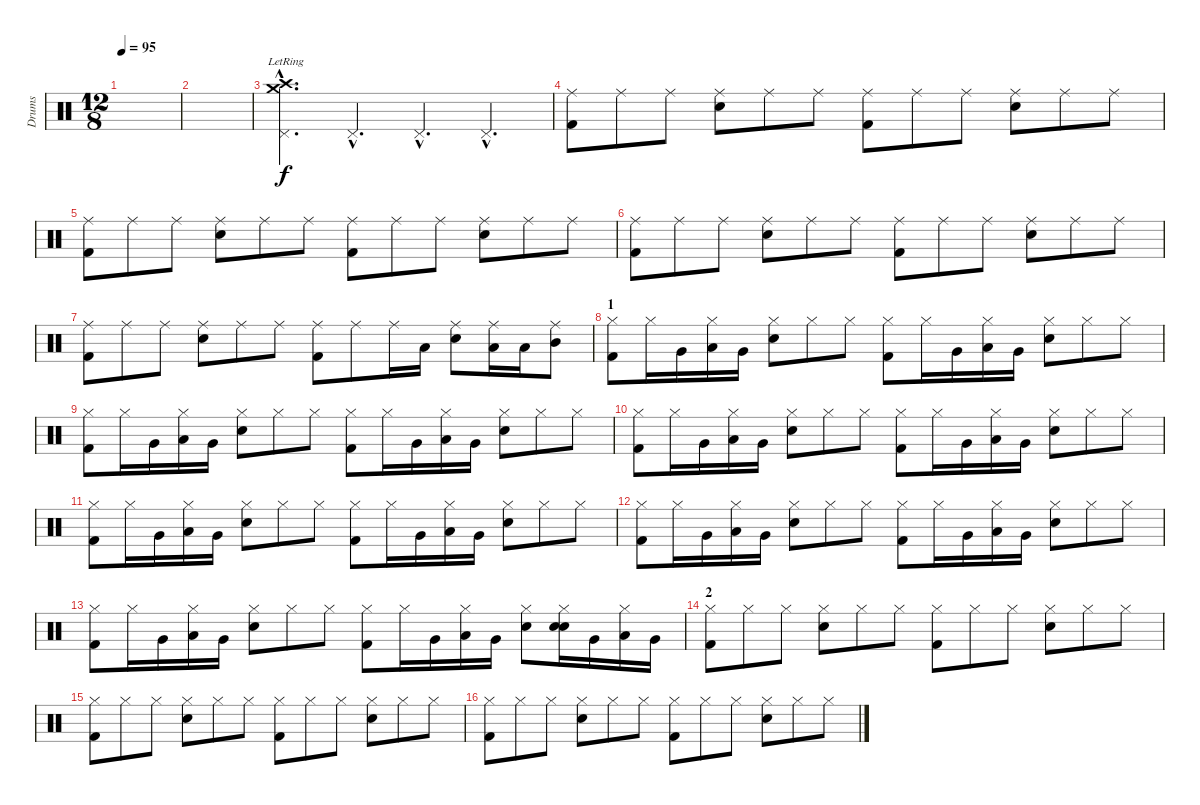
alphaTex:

\track ("Drums" "Drums") {instrument percussion}
\staff {score}
\articulation defaults
\ts (12 8)
\tempo 95
\clef neutral
\ks c
|
|
("Pedal Hi-Hat (hit)"{hac} "Crash medium (hit)"{hac lr} "Crash high (hit)"{hac lr}).4{d} "Pedal Hi-Hat (hit)"{hac}.4{d} "Pedal Hi-Hat (hit)"{hac}.4{d} "Pedal Hi-Hat (hit)"{hac}.4{d} |
("Kick (hit) 2" "Ride (middle)").8 "Ride (middle)".8 "Ride (middle)".8 ("Snare (hit) 2" "Ride (middle)").8 "Ride (middle)".8 "Ride (middle)".8 ("Kick (hit) 2" "Ride (middle)").8 "Ride (middle)".8 "Ride (middle)".8 ("Snare (hit) 2" "Ride (middle)").8 "Ride (middle)".8 "Ride (middle)".8 |
("Kick (hit) 2" "Ride (middle)").8 "Ride (middle)".8 "Ride (middle)".8 ("Snare (hit) 2" "Ride (middle)").8 "Ride (middle)".8 "Ride (middle)".8 ("Kick (hit) 2" "Ride (middle)").8 "Ride (middle)".8 "Ride (middle)".8 ("Snare (hit) 2" "Ride (middle)").8 "Ride (middle)".8 "Ride (middle)".8 |
("Kick (hit) 2" "Ride (middle)").8 "Ride (middle)".8 "Ride (middle)".8 ("Snare (hit) 2" "Ride (middle)").8 "Ride (middle)".8 "Ride (middle)".8 ("Kick (hit) 2" "Ride (middle)").8 "Ride (middle)".8 "Ride (middle)".8 ("Snare (hit) 2" "Ride (middle)").8 "Ride (middle)".8 "Ride (middle)".8 |
("Kick (hit) 2" "Ride (middle)").8 "Ride (middle)".8 "Ride (middle)".8 ("Snare (hit) 2" "Ride (middle)").8 "Ride (middle)".8 "Ride (middle)".8 ("Kick (hit) 2" "Ride (middle)").8 "Ride (middle)".8 "Ride (middle)".16 "Low Tom (hit)".16 ("Snare (hit) 2" "Ride (middle)").8 ("Ride (middle)" "Low Tom (hit)").16 "Low Tom (hit)".16 ("Ride (middle)" "Mid Tom (hit)").8 |
\section ("" "1")
("Kick (hit) 2" "Hi-Hat (closed)").8 "Hi-Hat (closed)".16 "Very Low Tom (hit)".16 ("Hi-Hat (closed)" "Low Tom (hit)").16 "Very Low Tom (hit)".16 ("Snare (hit) 2" "Hi-Hat (closed)").8 "Hi-Hat (closed)".8 "Hi-Hat (closed)".8 ("Kick (hit) 2" "Hi-Hat (closed)").8 "Hi-Hat (closed)".16 "Very Low Tom (hit)".16 ("Hi-Hat (closed)" "Low Tom (hit)").16 "Very Low Tom (hit)".16 ("Snare (hit) 2" "Hi-Hat (closed)").8 "Hi-Hat (closed)".8 "Hi-Hat (closed)".8 |
("Kick (hit) 2" "Hi-Hat (closed)").8 "Hi-Hat (closed)".16 "Very Low Tom (hit)".16 ("Hi-Hat (closed)" "Low Tom (hit)").16 "Very Low Tom (hit)".16 ("Snare (hit) 2" "Hi-Hat (closed)").8 "Hi-Hat (closed)".8 "Hi-Hat (closed)".8 ("Kick (hit) 2" "Hi-Hat (closed)").8 "Hi-Hat (closed)".16 "Very Low Tom (hit)".16 ("Hi-Hat (closed)" "Low Tom (hit)").16 "Very Low Tom (hit)".16 ("Snare (hit) 2" "Hi-Hat (closed)").8 "Hi-Hat (closed)".8 "Hi-Hat (closed)".8 |
("Kick (hit) 2" "Hi-Hat (closed)").8 "Hi-Hat (closed)".16 "Very Low Tom (hit)".16 ("Hi-Hat (closed)" "Low Tom (hit)").16 "Very Low Tom (hit)".16 ("Snare (hit) 2" "Hi-Hat (closed)").8 "Hi-Hat (closed)".8 "Hi-Hat (closed)".8 ("Kick (hit) 2" "Hi-Hat (closed)").8 "Hi-Hat (closed)".16 "Very Low Tom (hit)".16 ("Hi-Hat (closed)" "Low Tom (hit)").16 "Very Low Tom (hit)".16 ("Snare (hit) 2" "Hi-Hat (closed)").8 "Hi-Hat (closed)".8 "Hi-Hat (closed)".8 |
("Kick (hit) 2" "Hi-Hat (closed)").8 "Hi-Hat (closed)".16 "Very Low Tom (hit)".16 ("Hi-Hat (closed)" "Low Tom (hit)").16 "Very Low Tom (hit)".16 ("Snare (hit) 2" "Hi-Hat (closed)").8 "Hi-Hat (closed)".8 "Hi-Hat (closed)".8 ("Kick (hit) 2" "Hi-Hat (closed)").8 "Hi-Hat (closed)".16 "Very Low Tom (hit)".16 ("Hi-Hat (closed)" "Low Tom (hit)").16 "Very Low Tom (hit)".16 ("Snare (hit) 2" "Hi-Hat (closed)").8 "Hi-Hat (closed)".8 "Hi-Hat (closed)".8 |
("Kick (hit) 2" "Hi-Hat (closed)").8 "Hi-Hat (closed)".16 "Very Low Tom (hit)".16 ("Hi-Hat (closed)" "Low Tom (hit)").16 "Very Low Tom (hit)".16 ("Snare (hit) 2" "Hi-Hat (closed)").8 "Hi-Hat (closed)".8 "Hi-Hat (closed)".8 ("Kick (hit) 2" "Hi-Hat (closed)").8 "Hi-Hat (closed)".16 "Very Low Tom (hit)".16 ("Hi-Hat (closed)" "Low Tom (hit)").16 "Very Low Tom (hit)".16 ("Snare (hit) 2" "Hi-Hat (closed)").8 "Hi-Hat (closed)".8 "Hi-Hat (closed)".8 |
("Kick (hit) 2" "Hi-Hat (closed)").8 "Hi-Hat (closed)".16 "Very Low Tom (hit)".16 ("Hi-Hat (closed)" "Low Tom (hit)").16 "Very Low Tom (hit)".16 ("Snare (hit) 2" "Hi-Hat (closed)").8 "Hi-Hat (closed)".8 "Hi-Hat (closed)".8 ("Kick (hit) 2" "Hi-Hat (closed)").8 "Hi-Hat (closed)".16 "Very Low Tom (hit)".16 ("Hi-Hat (closed)" "Low Tom (hit)").16 "Very Low Tom (hit)".16 ("Snare (hit) 2" "Hi-Hat (closed)").8 ("Snare (hit) 2" "Snare (hit) 2" "Hi-Hat (closed)").16 "Very Low Tom (hit)".16 ("Hi-Hat (closed)" "Low Tom (hit)").16 "Very Low Tom (hit)".16 |
\section ("" "2")
("Kick (hit) 2" "Hi-Hat (closed)").8 "Hi-Hat (closed)".8 "Hi-Hat (closed)".8 ("Snare (hit) 2" "Hi-Hat (closed)").8 "Hi-Hat (closed)".8 "Hi-Hat (closed)".8 ("Kick (hit) 2" "Hi-Hat (closed)").8 "Hi-Hat (closed)".8 "Hi-Hat (closed)".8 ("Snare (hit) 2" "Hi-Hat (closed)").8 "Hi-Hat (closed)".8 "Hi-Hat (closed)".8 |
("Kick (hit) 2" "Hi-Hat (closed)").8 "Hi-Hat (closed)".8 "Hi-Hat (closed)".8 ("Snare (hit) 2" "Hi-Hat (closed)").8 "Hi-Hat (closed)".8 "Hi-Hat (closed)".8 ("Kick (hit) 2" "Hi-Hat (closed)").8 "Hi-Hat (closed)".8 "Hi-Hat (closed)".8 ("Snare (hit) 2" "Hi-Hat (closed)").8 "Hi-Hat (closed)".8 "Hi-Hat (closed)".8 |
("Kick (hit) 2" "Hi-Hat (closed)").8 "Hi-Hat (closed)".8 "Hi-Hat (closed)".8 ("Snare (hit) 2" "Hi-Hat (closed)").8 "Hi-Hat (closed)".8 "Hi-Hat (closed)".8 ("Kick (hit) 2" "Hi-Hat (closed)").8 "Hi-Hat (closed)".8 "Hi-Hat (closed)".8 ("Snare (hit) 2" "Hi-Hat (closed)").8 "Hi-Hat (closed)".8 "Hi-Hat (closed)".8
